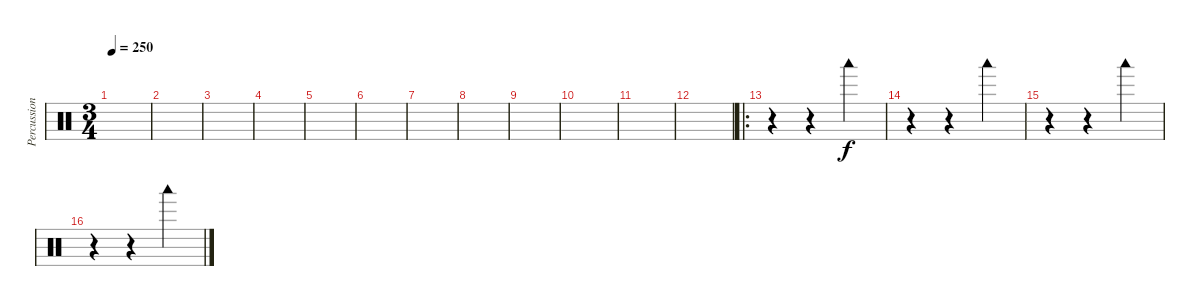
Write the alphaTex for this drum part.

\track ("Percussion" "Percussion") {instrument percussion}
\staff {score}
\articulation defaults
\ts (3 4)
\tempo 250
\clef neutral
\ks c
|
|
|
|
|
|
|
|
|
|
|
|
\ro
r.4 r.4 "Woodblock low (hit)".4 |
r.4 r.4 "Woodblock low (hit)".4 |
r.4 r.4 "Woodblock low (hit)".4 |
r.4 r.4 "Woodblock low (hit)".4
